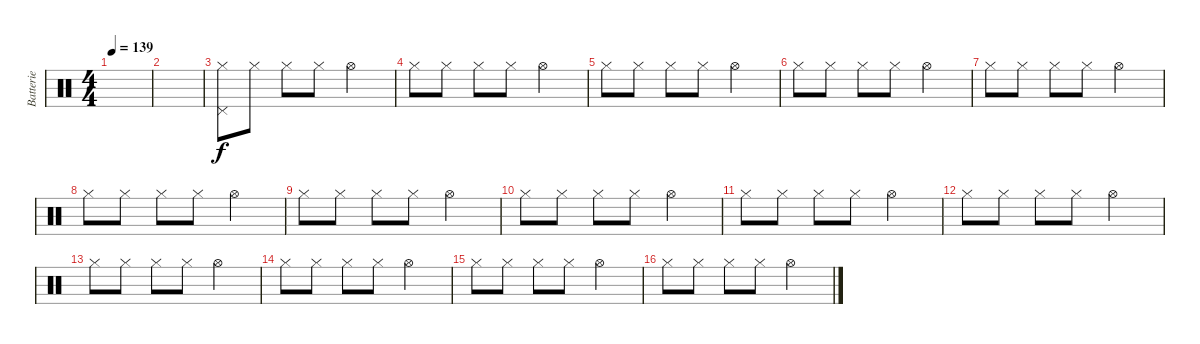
\track ("Batterie" "Batterie") {instrument percussion}
\staff {score}
\articulation defaults
\ts (4 4)
\tempo 139
\clef neutral
\ks c
|
|
("Hi-Hat (closed)" "Pedal Hi-Hat (hit)").8 "Hi-Hat (closed)".8 "Hi-Hat (closed)".8 "Hi-Hat (closed)".8 "Hi-Hat (open)".2 |
"Hi-Hat (closed)".8 "Hi-Hat (closed)".8 "Hi-Hat (closed)".8 "Hi-Hat (closed)".8 "Hi-Hat (open)".2 |
"Hi-Hat (closed)".8 "Hi-Hat (closed)".8 "Hi-Hat (closed)".8 "Hi-Hat (closed)".8 "Hi-Hat (open)".2 |
"Hi-Hat (closed)".8 "Hi-Hat (closed)".8 "Hi-Hat (closed)".8 "Hi-Hat (closed)".8 "Hi-Hat (open)".2 |
"Hi-Hat (closed)".8 "Hi-Hat (closed)".8 "Hi-Hat (closed)".8 "Hi-Hat (closed)".8 "Hi-Hat (open)".2 |
"Hi-Hat (closed)".8 "Hi-Hat (closed)".8 "Hi-Hat (closed)".8 "Hi-Hat (closed)".8 "Hi-Hat (open)".2 |
"Hi-Hat (closed)".8 "Hi-Hat (closed)".8 "Hi-Hat (closed)".8 "Hi-Hat (closed)".8 "Hi-Hat (open)".2 |
"Hi-Hat (closed)".8 "Hi-Hat (closed)".8 "Hi-Hat (closed)".8 "Hi-Hat (closed)".8 "Hi-Hat (open)".2 |
"Hi-Hat (closed)".8 "Hi-Hat (closed)".8 "Hi-Hat (closed)".8 "Hi-Hat (closed)".8 "Hi-Hat (open)".2 |
"Hi-Hat (closed)".8 "Hi-Hat (closed)".8 "Hi-Hat (closed)".8 "Hi-Hat (closed)".8 "Hi-Hat (open)".2 |
"Hi-Hat (closed)".8 "Hi-Hat (closed)".8 "Hi-Hat (closed)".8 "Hi-Hat (closed)".8 "Hi-Hat (open)".2 |
"Hi-Hat (closed)".8 "Hi-Hat (closed)".8 "Hi-Hat (closed)".8 "Hi-Hat (closed)".8 "Hi-Hat (open)".2 |
"Hi-Hat (closed)".8 "Hi-Hat (closed)".8 "Hi-Hat (closed)".8 "Hi-Hat (closed)".8 "Hi-Hat (open)".2 |
"Hi-Hat (closed)".8 "Hi-Hat (closed)".8 "Hi-Hat (closed)".8 "Hi-Hat (closed)".8 "Hi-Hat (open)".2
